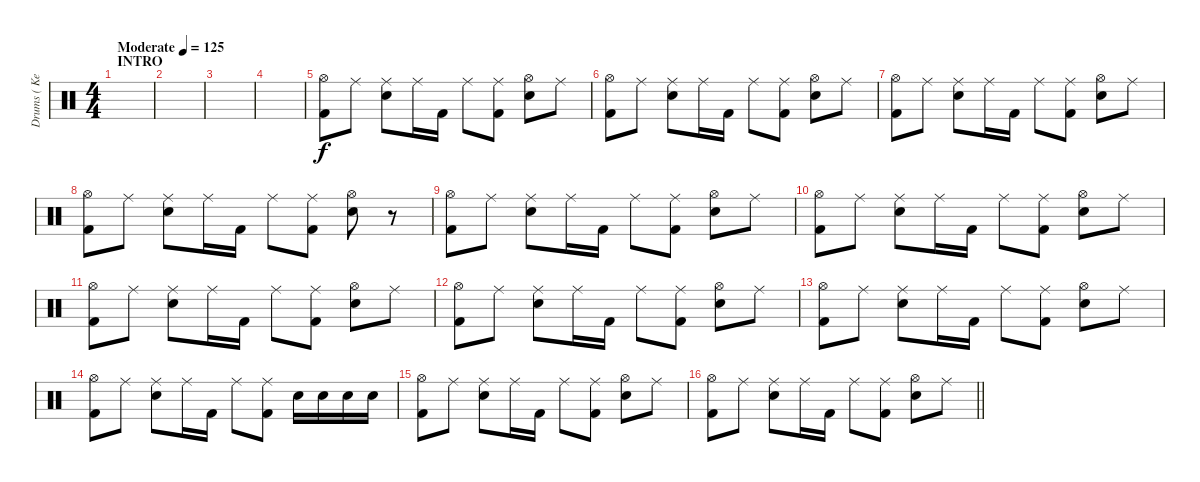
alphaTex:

\track ("Drums ( Ken Jay )" "Drums ( Ke") {instrument percussion}
\staff {score}
\articulation defaults
\ts (4 4)
\section ("" "INTRO")
\tempo (125 "Moderate")
\clef neutral
\ks c
|
|
|
|
("Hi-Hat (open)" "Kick (hit) 2").8 "Ride (middle)".8 ("Ride (middle)" "Snare (hit) 2").8 "Ride (middle)".16 "Kick (hit) 2".16 "Ride (middle)".8 ("Ride (middle)" "Kick (hit) 2").8 ("Hi-Hat (open)" "Snare (hit) 2").8 "Ride (middle)".8 |
("Hi-Hat (open)" "Kick (hit) 2").8 "Ride (middle)".8 ("Ride (middle)" "Snare (hit) 2").8 "Ride (middle)".16 "Kick (hit) 2".16 "Ride (middle)".8 ("Ride (middle)" "Kick (hit) 2").8 ("Hi-Hat (open)" "Snare (hit) 2").8 "Ride (middle)".8 |
("Hi-Hat (open)" "Kick (hit) 2").8 "Ride (middle)".8 ("Ride (middle)" "Snare (hit) 2").8 "Ride (middle)".16 "Kick (hit) 2".16 "Ride (middle)".8 ("Ride (middle)" "Kick (hit) 2").8 ("Hi-Hat (open)" "Snare (hit) 2").8 "Ride (middle)".8 |
("Hi-Hat (open)" "Kick (hit) 2").8 "Ride (middle)".8 ("Ride (middle)" "Snare (hit) 2").8 "Ride (middle)".16 "Kick (hit) 2".16 "Ride (middle)".8 ("Ride (middle)" "Kick (hit) 2").8 ("Hi-Hat (open)" "Snare (hit) 2").8 r.8 |
("Hi-Hat (open)" "Kick (hit) 2").8 "Ride (middle)".8 ("Ride (middle)" "Snare (hit) 2").8 "Ride (middle)".16 "Kick (hit) 2".16 "Ride (middle)".8 ("Ride (middle)" "Kick (hit) 2").8 ("Hi-Hat (open)" "Snare (hit) 2").8 "Ride (middle)".8 |
("Hi-Hat (open)" "Kick (hit) 2").8 "Ride (middle)".8 ("Ride (middle)" "Snare (hit) 2").8 "Ride (middle)".16 "Kick (hit) 2".16 "Ride (middle)".8 ("Ride (middle)" "Kick (hit) 2").8 ("Hi-Hat (open)" "Snare (hit) 2").8 "Ride (middle)".8 |
("Hi-Hat (open)" "Kick (hit) 2").8 "Ride (middle)".8 ("Ride (middle)" "Snare (hit) 2").8 "Ride (middle)".16 "Kick (hit) 2".16 "Ride (middle)".8 ("Ride (middle)" "Kick (hit) 2").8 ("Hi-Hat (open)" "Snare (hit) 2").8 "Ride (middle)".8 |
("Hi-Hat (open)" "Kick (hit) 2").8 "Ride (middle)".8 ("Ride (middle)" "Snare (hit) 2").8 "Ride (middle)".16 "Kick (hit) 2".16 "Ride (middle)".8 ("Ride (middle)" "Kick (hit) 2").8 ("Hi-Hat (open)" "Snare (hit) 2").8 "Ride (middle)".8 |
("Hi-Hat (open)" "Kick (hit) 2").8 "Ride (middle)".8 ("Ride (middle)" "Snare (hit) 2").8 "Ride (middle)".16 "Kick (hit) 2".16 "Ride (middle)".8 ("Ride (middle)" "Kick (hit) 2").8 ("Hi-Hat (open)" "Snare (hit) 2").8 "Ride (middle)".8 |
("Hi-Hat (open)" "Kick (hit) 2").8 "Ride (middle)".8 ("Ride (middle)" "Snare (hit) 2").8 "Ride (middle)".16 "Kick (hit) 2".16 "Ride (middle)".8 ("Ride (middle)" "Kick (hit) 2").8 "Snare (hit) 2".16 "Snare (hit) 2".16 "Snare (hit) 2".16 "Snare (hit) 2".16 |
("Hi-Hat (open)" "Kick (hit) 2").8 "Ride (middle)".8 ("Ride (middle)" "Snare (hit) 2").8 "Ride (middle)".16 "Kick (hit) 2".16 "Ride (middle)".8 ("Ride (middle)" "Kick (hit) 2").8 ("Hi-Hat (open)" "Snare (hit) 2").8 "Ride (middle)".8 |
\barLineRight lightlight
("Hi-Hat (open)" "Kick (hit) 2").8 "Ride (middle)".8 ("Ride (middle)" "Snare (hit) 2").8 "Ride (middle)".16 "Kick (hit) 2".16 "Ride (middle)".8 ("Ride (middle)" "Kick (hit) 2").8 ("Hi-Hat (open)" "Snare (hit) 2").8 "Ride (middle)".8
